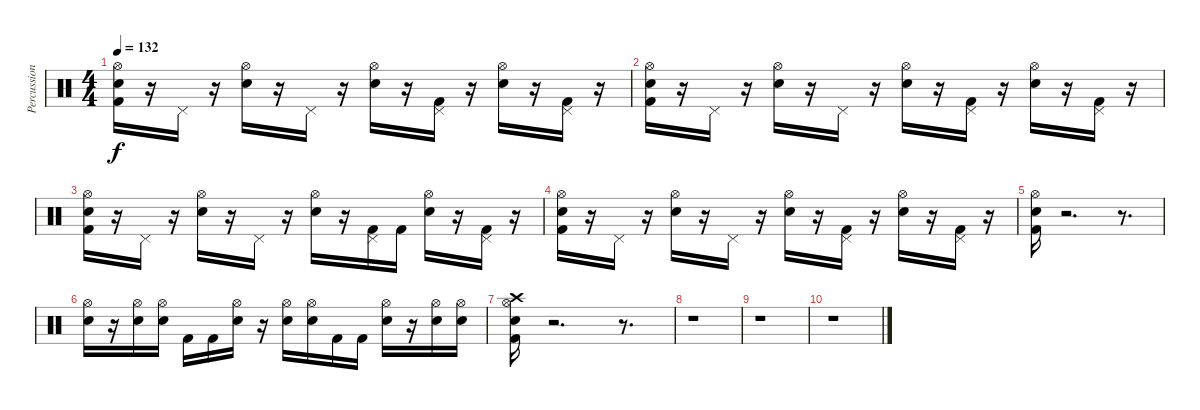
\track ("Percussion" "Percussion") {instrument percussion}
\staff {score}
\articulation defaults
\ts (4 4)
\tempo 132
\clef neutral
\ks c
("Hi-Hat (open)" "Kick (hit) 2" "Snare (hit) 2").16{dy f} r.16 "Pedal Hi-Hat (hit)".16 r.16 ("Hi-Hat (open)" "Snare (hit) 2").16 r.16 "Pedal Hi-Hat (hit)".16 r.16 ("Hi-Hat (open)" "Snare (hit) 2").16 r.16 ("Pedal Hi-Hat (hit)" "Kick (hit) 2").16 r.16 ("Hi-Hat (open)" "Snare (hit) 2").16 r.16 ("Pedal Hi-Hat (hit)" "Kick (hit) 2").16 r.16 |
("Hi-Hat (open)" "Kick (hit) 2" "Snare (hit) 2").16 r.16 "Pedal Hi-Hat (hit)".16 r.16 ("Hi-Hat (open)" "Snare (hit) 2").16 r.16 "Pedal Hi-Hat (hit)".16 r.16 ("Hi-Hat (open)" "Snare (hit) 2").16 r.16 ("Pedal Hi-Hat (hit)" "Kick (hit) 2").16 r.16 ("Hi-Hat (open)" "Snare (hit) 2").16 r.16 ("Pedal Hi-Hat (hit)" "Kick (hit) 2").16 r.16 |
("Hi-Hat (open)" "Snare (hit) 2" "Kick (hit) 2").16 r.16 "Pedal Hi-Hat (hit)".16 r.16 ("Hi-Hat (open)" "Snare (hit) 2").16 r.16 "Pedal Hi-Hat (hit)".16 r.16 ("Hi-Hat (open)" "Snare (hit) 2").16 r.16 ("Pedal Hi-Hat (hit)" "Kick (hit) 2").16 "Kick (hit) 2".16 ("Hi-Hat (open)" "Snare (hit) 2").16 r.16 ("Pedal Hi-Hat (hit)" "Kick (hit) 2").16 r.16 |
("Hi-Hat (open)" "Kick (hit) 2" "Snare (hit) 2").16 r.16 "Pedal Hi-Hat (hit)".16 r.16 ("Hi-Hat (open)" "Snare (hit) 2").16 r.16 "Pedal Hi-Hat (hit)".16 r.16 ("Hi-Hat (open)" "Snare (hit) 2").16 r.16 ("Pedal Hi-Hat (hit)" "Kick (hit) 2").16 r.16 ("Hi-Hat (open)" "Snare (hit) 2").16 r.16 ("Pedal Hi-Hat (hit)" "Kick (hit) 2").16 r.16 |
("Hi-Hat (open)" "Kick (hit) 2" "Snare (hit) 2").16 r.2{d} r.8{d} |
("Hi-Hat (open)" "Snare (hit) 2").16 r.16 ("Hi-Hat (open)" "Snare (hit) 2").16 ("Hi-Hat (open)" "Snare (hit) 2").16 "Kick (hit) 2".16 "Kick (hit) 2".16 ("Snare (hit) 2" "Hi-Hat (open)").16 r.16 ("Snare (hit) 2" "Hi-Hat (open)").16 ("Snare (hit) 2" "Hi-Hat (open)").16 "Kick (hit) 2".16 "Kick (hit) 2".16 ("Snare (hit) 2" "Hi-Hat (open)").16 r.16 ("Snare (hit) 2" "Hi-Hat (open)").16 ("Snare (hit) 2" "Hi-Hat (open)").16 |
("Hi-Hat (open)" "Crash high (hit)" "Kick (hit) 2" "Snare (hit) 2").16 r.2{d} r.8{d} |
r.1 |
r.1 |
r.1
